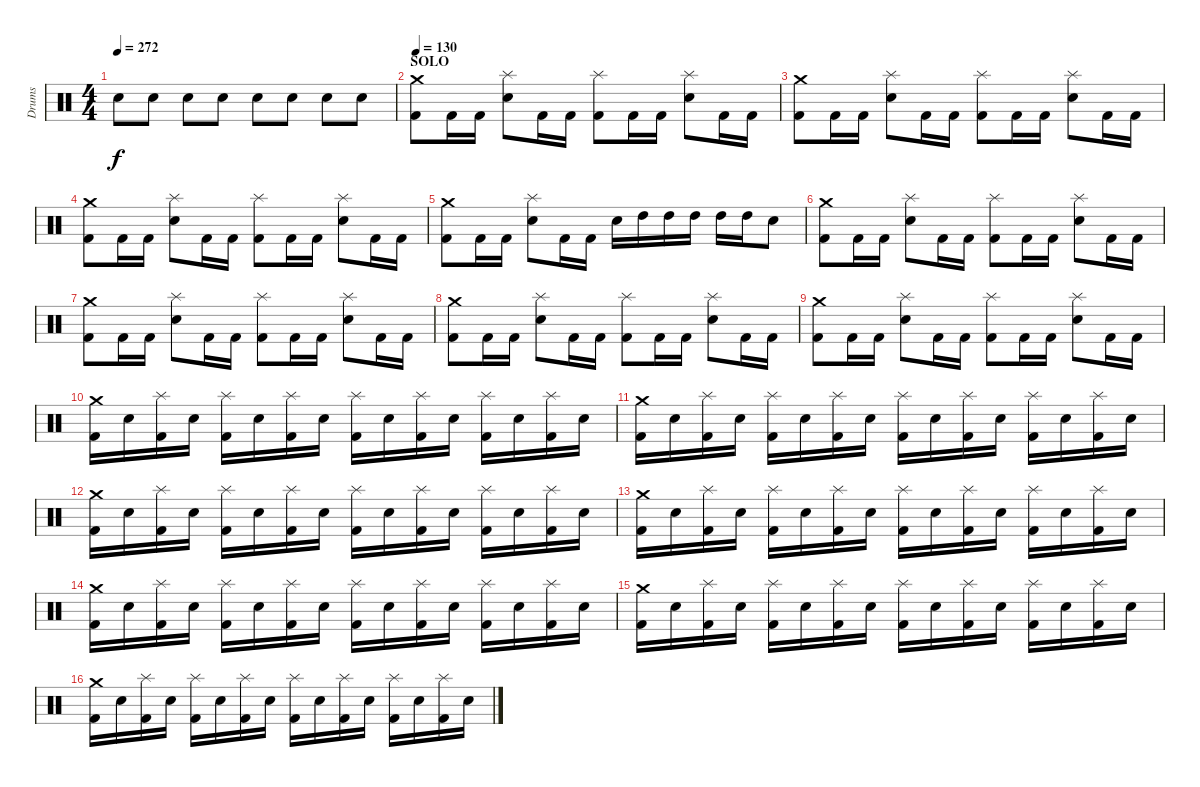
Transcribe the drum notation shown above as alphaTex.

\track ("Drums" "Drums") {instrument percussion}
\staff {score}
\articulation defaults
\ts (4 4)
\tempo 272
\clef neutral
\ks c "Snare (hit) 2".8{dy f} "Snare (hit) 2".8 "Snare (hit) 2".8 "Snare (hit) 2".8 "Snare (hit) 2".8 "Snare (hit) 2".8 "Snare (hit) 2".8 "Snare (hit) 2".8
|
\section ("" "SOLO")
\tempo 130
("Crash medium (hit)" "Kick (hit) 2").8 "Kick (hit) 2".16 "Kick (hit) 2".16 ("Splash (hit)" "Snare (hit) 2").8 "Kick (hit) 2".16 "Kick (hit) 2".16 ("Splash (hit)" "Kick (hit) 2").8 "Kick (hit) 2".16 "Kick (hit) 2".16 ("Splash (hit)" "Snare (hit) 2").8 "Kick (hit) 2".16 "Kick (hit) 2".16 |
("Crash medium (hit)" "Kick (hit) 2").8 "Kick (hit) 2".16 "Kick (hit) 2".16 ("Splash (hit)" "Snare (hit) 2").8 "Kick (hit) 2".16 "Kick (hit) 2".16 ("Splash (hit)" "Kick (hit) 2").8 "Kick (hit) 2".16 "Kick (hit) 2".16 ("Splash (hit)" "Snare (hit) 2").8 "Kick (hit) 2".16 "Kick (hit) 2".16 |
("Crash medium (hit)" "Kick (hit) 2").8 "Kick (hit) 2".16 "Kick (hit) 2".16 ("Splash (hit)" "Snare (hit) 2").8 "Kick (hit) 2".16 "Kick (hit) 2".16 ("Splash (hit)" "Kick (hit) 2").8 "Kick (hit) 2".16 "Kick (hit) 2".16 ("Splash (hit)" "Snare (hit) 2").8 "Kick (hit) 2".16 "Kick (hit) 2".16 |
("Crash medium (hit)" "Kick (hit) 2").8 "Kick (hit) 2".16 "Kick (hit) 2".16 ("Splash (hit)" "Snare (hit) 2").8 "Kick (hit) 2".16 "Kick (hit) 2".16 "Snare (hit) 2".16 "High Tom (hit)".16 "High Tom (hit)".16 "High Tom (hit)".16 "High Tom (hit)".16 "High Tom (hit)".16 "Snare (hit) 2".8 |
("Crash medium (hit)" "Kick (hit) 2").8 "Kick (hit) 2".16 "Kick (hit) 2".16 ("Splash (hit)" "Snare (hit) 2").8 "Kick (hit) 2".16 "Kick (hit) 2".16 ("Splash (hit)" "Kick (hit) 2").8 "Kick (hit) 2".16 "Kick (hit) 2".16 ("Splash (hit)" "Snare (hit) 2").8 "Kick (hit) 2".16 "Kick (hit) 2".16 |
("Crash medium (hit)" "Kick (hit) 2").8 "Kick (hit) 2".16 "Kick (hit) 2".16 ("Splash (hit)" "Snare (hit) 2").8 "Kick (hit) 2".16 "Kick (hit) 2".16 ("Splash (hit)" "Kick (hit) 2").8 "Kick (hit) 2".16 "Kick (hit) 2".16 ("Splash (hit)" "Snare (hit) 2").8 "Kick (hit) 2".16 "Kick (hit) 2".16 |
("Crash medium (hit)" "Kick (hit) 2").8 "Kick (hit) 2".16 "Kick (hit) 2".16 ("Splash (hit)" "Snare (hit) 2").8 "Kick (hit) 2".16 "Kick (hit) 2".16 ("Splash (hit)" "Kick (hit) 2").8 "Kick (hit) 2".16 "Kick (hit) 2".16 ("Splash (hit)" "Snare (hit) 2").8 "Kick (hit) 2".16 "Kick (hit) 2".16 |
("Crash medium (hit)" "Kick (hit) 2").8 "Kick (hit) 2".16 "Kick (hit) 2".16 ("Splash (hit)" "Snare (hit) 2").8 "Kick (hit) 2".16 "Kick (hit) 2".16 ("Splash (hit)" "Kick (hit) 2").8 "Kick (hit) 2".16 "Kick (hit) 2".16 ("Splash (hit)" "Snare (hit) 2").8 "Kick (hit) 2".16 "Kick (hit) 2".16 |
("Crash medium (hit)" "Kick (hit) 2").16 "Snare (hit) 2".16 ("Splash (hit)" "Kick (hit) 2").16 "Snare (hit) 2".16 ("Splash (hit)" "Kick (hit) 2").16 "Snare (hit) 2".16 ("Splash (hit)" "Kick (hit) 2").16 "Snare (hit) 2".16 ("Splash (hit)" "Kick (hit) 2").16 "Snare (hit) 2".16 ("Splash (hit)" "Kick (hit) 2").16 "Snare (hit) 2".16 ("Splash (hit)" "Kick (hit) 2").16 "Snare (hit) 2".16 ("Splash (hit)" "Kick (hit) 2").16 "Snare (hit) 2".16 |
("Crash medium (hit)" "Kick (hit) 2").16 "Snare (hit) 2".16 ("Splash (hit)" "Kick (hit) 2").16 "Snare (hit) 2".16 ("Splash (hit)" "Kick (hit) 2").16 "Snare (hit) 2".16 ("Splash (hit)" "Kick (hit) 2").16 "Snare (hit) 2".16 ("Splash (hit)" "Kick (hit) 2").16 "Snare (hit) 2".16 ("Splash (hit)" "Kick (hit) 2").16 "Snare (hit) 2".16 ("Splash (hit)" "Kick (hit) 2").16 "Snare (hit) 2".16 ("Splash (hit)" "Kick (hit) 2").16 "Snare (hit) 2".16 |
("Crash medium (hit)" "Kick (hit) 2").16 "Snare (hit) 2".16 ("Splash (hit)" "Kick (hit) 2").16 "Snare (hit) 2".16 ("Splash (hit)" "Kick (hit) 2").16 "Snare (hit) 2".16 ("Splash (hit)" "Kick (hit) 2").16 "Snare (hit) 2".16 ("Splash (hit)" "Kick (hit) 2").16 "Snare (hit) 2".16 ("Splash (hit)" "Kick (hit) 2").16 "Snare (hit) 2".16 ("Splash (hit)" "Kick (hit) 2").16 "Snare (hit) 2".16 ("Splash (hit)" "Kick (hit) 2").16 "Snare (hit) 2".16 |
("Crash medium (hit)" "Kick (hit) 2").16 "Snare (hit) 2".16 ("Splash (hit)" "Kick (hit) 2").16 "Snare (hit) 2".16 ("Splash (hit)" "Kick (hit) 2").16 "Snare (hit) 2".16 ("Splash (hit)" "Kick (hit) 2").16 "Snare (hit) 2".16 ("Splash (hit)" "Kick (hit) 2").16 "Snare (hit) 2".16 ("Splash (hit)" "Kick (hit) 2").16 "Snare (hit) 2".16 ("Splash (hit)" "Kick (hit) 2").16 "Snare (hit) 2".16 ("Splash (hit)" "Kick (hit) 2").16 "Snare (hit) 2".16 |
("Crash medium (hit)" "Kick (hit) 2").16 "Snare (hit) 2".16 ("Splash (hit)" "Kick (hit) 2").16 "Snare (hit) 2".16 ("Splash (hit)" "Kick (hit) 2").16 "Snare (hit) 2".16 ("Splash (hit)" "Kick (hit) 2").16 "Snare (hit) 2".16 ("Splash (hit)" "Kick (hit) 2").16 "Snare (hit) 2".16 ("Splash (hit)" "Kick (hit) 2").16 "Snare (hit) 2".16 ("Splash (hit)" "Kick (hit) 2").16 "Snare (hit) 2".16 ("Splash (hit)" "Kick (hit) 2").16 "Snare (hit) 2".16 |
("Crash medium (hit)" "Kick (hit) 2").16 "Snare (hit) 2".16 ("Splash (hit)" "Kick (hit) 2").16 "Snare (hit) 2".16 ("Splash (hit)" "Kick (hit) 2").16 "Snare (hit) 2".16 ("Splash (hit)" "Kick (hit) 2").16 "Snare (hit) 2".16 ("Splash (hit)" "Kick (hit) 2").16 "Snare (hit) 2".16 ("Splash (hit)" "Kick (hit) 2").16 "Snare (hit) 2".16 ("Splash (hit)" "Kick (hit) 2").16 "Snare (hit) 2".16 ("Splash (hit)" "Kick (hit) 2").16 "Snare (hit) 2".16 |
("Crash medium (hit)" "Kick (hit) 2").16 "Snare (hit) 2".16 ("Splash (hit)" "Kick (hit) 2").16 "Snare (hit) 2".16 ("Splash (hit)" "Kick (hit) 2").16 "Snare (hit) 2".16 ("Splash (hit)" "Kick (hit) 2").16 "Snare (hit) 2".16 ("Splash (hit)" "Kick (hit) 2").16 "Snare (hit) 2".16 ("Splash (hit)" "Kick (hit) 2").16 "Snare (hit) 2".16 ("Splash (hit)" "Kick (hit) 2").16 "Snare (hit) 2".16 ("Splash (hit)" "Kick (hit) 2").16 "Snare (hit) 2".16
